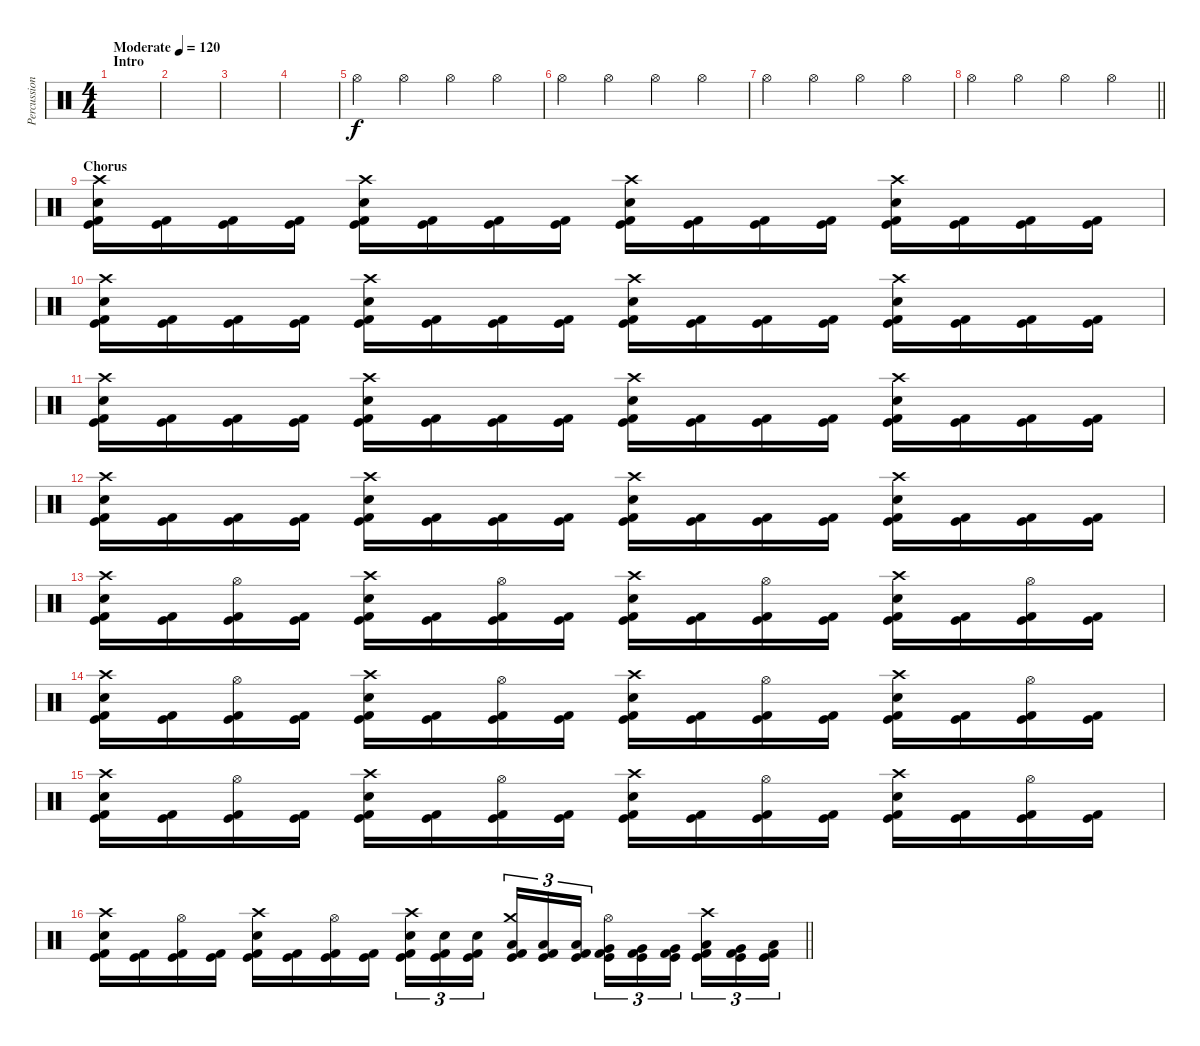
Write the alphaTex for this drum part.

\track ("Percussion" "Percussion") {instrument percussion}
\staff {score}
\articulation defaults
\ts (4 4)
\section ("" "Intro")
\tempo (120 "Moderate")
\clef neutral
\ks c
|
|
|
|
"Hi-Hat (open)".4 "Hi-Hat (open)".4 "Hi-Hat (open)".4 "Hi-Hat (open)".4 |
"Hi-Hat (open)".4 "Hi-Hat (open)".4 "Hi-Hat (open)".4 "Hi-Hat (open)".4 |
"Hi-Hat (open)".4 "Hi-Hat (open)".4 "Hi-Hat (open)".4 "Hi-Hat (open)".4 |
\barLineRight lightlight "Hi-Hat (open)".4 "Hi-Hat (open)".4 "Hi-Hat (open)".4 "Hi-Hat (open)".4
|
\section ("" "Chorus")
("Crash high (hit)" "Electric Snare (hit)" "Kick (hit)" "Kick (hit) 2").16 ("Kick (hit)" "Kick (hit) 2").16 ("Kick (hit)" "Kick (hit) 2").16 ("Kick (hit)" "Kick (hit) 2").16 ("Crash high (hit)" "Electric Snare (hit)" "Kick (hit)" "Kick (hit) 2").16 ("Kick (hit)" "Kick (hit) 2").16 ("Kick (hit)" "Kick (hit) 2").16 ("Kick (hit)" "Kick (hit) 2").16 ("Crash high (hit)" "Electric Snare (hit)" "Kick (hit)" "Kick (hit) 2").16 ("Kick (hit)" "Kick (hit) 2").16 ("Kick (hit)" "Kick (hit) 2").16 ("Kick (hit)" "Kick (hit) 2").16 ("Crash high (hit)" "Electric Snare (hit)" "Kick (hit)" "Kick (hit) 2").16 ("Kick (hit)" "Kick (hit) 2").16 ("Kick (hit)" "Kick (hit) 2").16 ("Kick (hit)" "Kick (hit) 2").16 |
("Crash high (hit)" "Electric Snare (hit)" "Kick (hit)" "Kick (hit) 2").16 ("Kick (hit)" "Kick (hit) 2").16 ("Kick (hit)" "Kick (hit) 2").16 ("Kick (hit)" "Kick (hit) 2").16 ("Crash high (hit)" "Electric Snare (hit)" "Kick (hit)" "Kick (hit) 2").16 ("Kick (hit)" "Kick (hit) 2").16 ("Kick (hit)" "Kick (hit) 2").16 ("Kick (hit)" "Kick (hit) 2").16 ("Crash high (hit)" "Electric Snare (hit)" "Kick (hit)" "Kick (hit) 2").16 ("Kick (hit)" "Kick (hit) 2").16 ("Kick (hit)" "Kick (hit) 2").16 ("Kick (hit)" "Kick (hit) 2").16 ("Crash high (hit)" "Electric Snare (hit)" "Kick (hit)" "Kick (hit) 2").16 ("Kick (hit)" "Kick (hit) 2").16 ("Kick (hit)" "Kick (hit) 2").16 ("Kick (hit)" "Kick (hit) 2").16 |
("Crash high (hit)" "Electric Snare (hit)" "Kick (hit)" "Kick (hit) 2").16 ("Kick (hit)" "Kick (hit) 2").16 ("Kick (hit)" "Kick (hit) 2").16 ("Kick (hit)" "Kick (hit) 2").16 ("Crash high (hit)" "Electric Snare (hit)" "Kick (hit)" "Kick (hit) 2").16 ("Kick (hit)" "Kick (hit) 2").16 ("Kick (hit)" "Kick (hit) 2").16 ("Kick (hit)" "Kick (hit) 2").16 ("Crash high (hit)" "Electric Snare (hit)" "Kick (hit)" "Kick (hit) 2").16 ("Kick (hit)" "Kick (hit) 2").16 ("Kick (hit)" "Kick (hit) 2").16 ("Kick (hit)" "Kick (hit) 2").16 ("Crash high (hit)" "Electric Snare (hit)" "Kick (hit)" "Kick (hit) 2").16 ("Kick (hit)" "Kick (hit) 2").16 ("Kick (hit)" "Kick (hit) 2").16 ("Kick (hit)" "Kick (hit) 2").16 |
("Crash high (hit)" "Electric Snare (hit)" "Kick (hit)" "Kick (hit) 2").16 ("Kick (hit)" "Kick (hit) 2").16 ("Kick (hit)" "Kick (hit) 2").16 ("Kick (hit)" "Kick (hit) 2").16 ("Crash high (hit)" "Electric Snare (hit)" "Kick (hit)" "Kick (hit) 2").16 ("Kick (hit)" "Kick (hit) 2").16 ("Kick (hit)" "Kick (hit) 2").16 ("Kick (hit)" "Kick (hit) 2").16 ("Crash high (hit)" "Electric Snare (hit)" "Kick (hit)" "Kick (hit) 2").16 ("Kick (hit)" "Kick (hit) 2").16 ("Kick (hit)" "Kick (hit) 2").16 ("Kick (hit)" "Kick (hit) 2").16 ("Crash high (hit)" "Electric Snare (hit)" "Kick (hit)" "Kick (hit) 2").16 ("Kick (hit)" "Kick (hit) 2").16 ("Kick (hit)" "Kick (hit) 2").16 ("Kick (hit)" "Kick (hit) 2").16 |
("Crash high (hit)" "Electric Snare (hit)" "Kick (hit)" "Kick (hit) 2").16 ("Kick (hit)" "Kick (hit) 2").16 ("Hi-Hat (open)" "Kick (hit)" "Kick (hit) 2").16 ("Kick (hit)" "Kick (hit) 2").16 ("Crash high (hit)" "Electric Snare (hit)" "Kick (hit)" "Kick (hit) 2").16 ("Kick (hit)" "Kick (hit) 2").16 ("Hi-Hat (open)" "Kick (hit)" "Kick (hit) 2").16 ("Kick (hit)" "Kick (hit) 2").16 ("Crash high (hit)" "Electric Snare (hit)" "Kick (hit)" "Kick (hit) 2").16 ("Kick (hit)" "Kick (hit) 2").16 ("Hi-Hat (open)" "Kick (hit)" "Kick (hit) 2").16 ("Kick (hit)" "Kick (hit) 2").16 ("Crash high (hit)" "Electric Snare (hit)" "Kick (hit)" "Kick (hit) 2").16 ("Kick (hit)" "Kick (hit) 2").16 ("Hi-Hat (open)" "Kick (hit)" "Kick (hit) 2").16 ("Kick (hit)" "Kick (hit) 2").16 |
("Crash high (hit)" "Electric Snare (hit)" "Kick (hit)" "Kick (hit) 2").16 ("Kick (hit)" "Kick (hit) 2").16 ("Hi-Hat (open)" "Kick (hit)" "Kick (hit) 2").16 ("Kick (hit)" "Kick (hit) 2").16 ("Crash high (hit)" "Electric Snare (hit)" "Kick (hit)" "Kick (hit) 2").16 ("Kick (hit)" "Kick (hit) 2").16 ("Hi-Hat (open)" "Kick (hit)" "Kick (hit) 2").16 ("Kick (hit)" "Kick (hit) 2").16 ("Crash high (hit)" "Electric Snare (hit)" "Kick (hit)" "Kick (hit) 2").16 ("Kick (hit)" "Kick (hit) 2").16 ("Hi-Hat (open)" "Kick (hit)" "Kick (hit) 2").16 ("Kick (hit)" "Kick (hit) 2").16 ("Crash high (hit)" "Electric Snare (hit)" "Kick (hit)" "Kick (hit) 2").16 ("Kick (hit)" "Kick (hit) 2").16 ("Hi-Hat (open)" "Kick (hit)" "Kick (hit) 2").16 ("Kick (hit)" "Kick (hit) 2").16 |
("Crash high (hit)" "Electric Snare (hit)" "Kick (hit)" "Kick (hit) 2").16 ("Kick (hit)" "Kick (hit) 2").16 ("Hi-Hat (open)" "Kick (hit)" "Kick (hit) 2").16 ("Kick (hit)" "Kick (hit) 2").16 ("Crash high (hit)" "Electric Snare (hit)" "Kick (hit)" "Kick (hit) 2").16 ("Kick (hit)" "Kick (hit) 2").16 ("Hi-Hat (open)" "Kick (hit)" "Kick (hit) 2").16 ("Kick (hit)" "Kick (hit) 2").16 ("Crash high (hit)" "Electric Snare (hit)" "Kick (hit)" "Kick (hit) 2").16 ("Kick (hit)" "Kick (hit) 2").16 ("Hi-Hat (open)" "Kick (hit)" "Kick (hit) 2").16 ("Kick (hit)" "Kick (hit) 2").16 ("Crash high (hit)" "Electric Snare (hit)" "Kick (hit)" "Kick (hit) 2").16 ("Kick (hit)" "Kick (hit) 2").16 ("Hi-Hat (open)" "Kick (hit)" "Kick (hit) 2").16 ("Kick (hit)" "Kick (hit) 2").16 |
\barLineRight lightlight
("Crash high (hit)" "Electric Snare (hit)" "Kick (hit)" "Kick (hit) 2").16 ("Kick (hit)" "Kick (hit) 2").16 ("Hi-Hat (open)" "Kick (hit)" "Kick (hit) 2").16 ("Kick (hit)" "Kick (hit) 2").16 ("Crash high (hit)" "Electric Snare (hit)" "Kick (hit)" "Kick (hit) 2").16 ("Kick (hit)" "Kick (hit) 2").16 ("Hi-Hat (open)" "Kick (hit)" "Kick (hit) 2").16 ("Kick (hit)" "Kick (hit) 2").16 ("Crash high (hit)" "Electric Snare (hit)" "Kick (hit)" "Kick (hit) 2").16{tu (3 2)} ("Electric Snare (hit)" "Kick (hit)" "Kick (hit) 2").16{tu (3 2)} ("Electric Snare (hit)" "Kick (hit)" "Kick (hit) 2").16{tu (3 2) beam splitsecondary} ("Crash medium (hit)" "Low Tom (hit)" "Kick (hit)" "Kick (hit) 2").16{tu (3 2)} ("Low Tom (hit)" "Kick (hit)" "Kick (hit) 2").16{tu (3 2)} ("Low Tom (hit)" "Kick (hit)" "Kick (hit) 2").16{tu (3 2)} ("Hi-Hat (open)" "Very Low Tom (hit)" "Kick (hit)" "Kick (hit) 2").16{tu (3 2)} ("Very Low Tom (hit)" "Kick (hit)" "Kick (hit) 2").16{tu (3 2)} ("Very Low Tom (hit)" "Kick (hit)" "Kick (hit) 2").16{tu (3 2) beam splitsecondary} ("Crash high (hit)" "Low Tom (hit)" "Kick (hit)" "Kick (hit) 2").16{tu (3 2)} ("Very Low Tom (hit)" "Kick (hit)" "Kick (hit) 2").16{tu (3 2)} ("Low Floor Tom (hit)" "Kick (hit)" "Kick (hit) 2").16{tu (3 2)}
